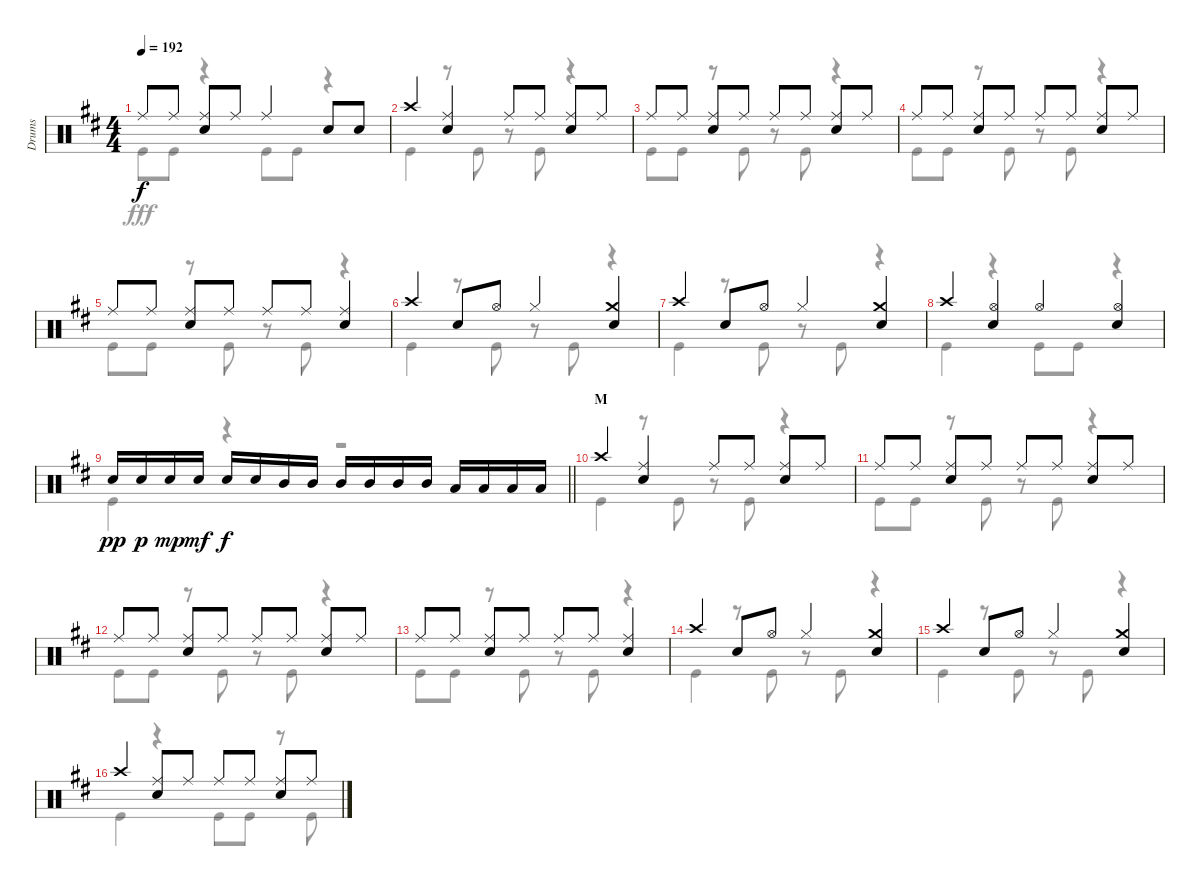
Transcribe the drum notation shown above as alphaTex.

\track ("Drums" "Drums") {instrument percussion}
\staff {score}
\articulation defaults
\voice
\ts (4 4)
\tempo 192
\clef neutral
\ks d "Ride (middle)".8{dy f} "Ride (middle)".8
("Ride (middle)" "Snare (hit) 2").8 "Ride (middle)".8 "Ride (middle)".4 "Snare (hit) 2".8 "Snare (hit) 2".8 |
"Crash high (hit)".4 ("Ride (middle)" "Snare (hit) 2").4 "Ride (middle)".8 "Ride (middle)".8 ("Ride (middle)" "Snare (hit) 2").8 "Ride (middle)".8 |
"Ride (middle)".8 "Ride (middle)".8 ("Ride (middle)" "Snare (hit) 2").8 "Ride (middle)".8 "Ride (middle)".8 "Ride (middle)".8 ("Ride (middle)" "Snare (hit) 2").8 "Ride (middle)".8 |
"Ride (middle)".8 "Ride (middle)".8 ("Ride (middle)" "Snare (hit) 2").8 "Ride (middle)".8 "Ride (middle)".8 "Ride (middle)".8 ("Ride (middle)" "Snare (hit) 2").8 "Ride (middle)".8 |
"Ride (middle)".8 "Ride (middle)".8 ("Ride (middle)" "Snare (hit) 2").8 "Ride (middle)".8 "Ride (middle)".8 "Ride (middle)".8 ("Ride (middle)" "Snare (hit) 2").4 |
"Crash high (hit)".4 "Snare (hit) 2".8 "Hi-Hat (open)".8 "Hi-Hat (closed)".4 ("Crash medium (hit)" "Snare (hit) 2").4 |
"Crash high (hit)".4 "Snare (hit) 2".8 "Hi-Hat (open)".8 "Hi-Hat (closed)".4 ("Crash medium (hit)" "Snare (hit) 2").4 |
"Crash high (hit)".4 ("Hi-Hat (open)" "Snare (hit) 2").4 "Hi-Hat (open)".4 ("Hi-Hat (open)" "Snare (hit) 2").4 |
\barLineRight lightlight "Snare (hit) 2".16{dy pp} "Snare (hit) 2".16{dy p} "Snare (hit) 2".16{dy mp} "Snare (hit) 2".16{dy mf} "Snare (hit) 2".16{dy f} "Snare (hit) 2".16 "Mid Tom (hit)".16 "Mid Tom (hit)".16 "Mid Tom (hit)".16 "Mid Tom (hit)".16 "Mid Tom (hit)".16 "Mid Tom (hit)".16 "Low Tom (hit)".16 "Low Tom (hit)".16 "Low Tom (hit)".16 "Low Tom (hit)".16
|
\section ("" "M")
"Crash high (hit)".4 ("Ride (middle)" "Snare (hit) 2").4 "Ride (middle)".8 "Ride (middle)".8 ("Ride (middle)" "Snare (hit) 2").8 "Ride (middle)".8 |
"Ride (middle)".8 "Ride (middle)".8 ("Ride (middle)" "Snare (hit) 2").8 "Ride (middle)".8 "Ride (middle)".8 "Ride (middle)".8 ("Ride (middle)" "Snare (hit) 2").8 "Ride (middle)".8 |
"Ride (middle)".8 "Ride (middle)".8 ("Ride (middle)" "Snare (hit) 2").8 "Ride (middle)".8 "Ride (middle)".8 "Ride (middle)".8 ("Ride (middle)" "Snare (hit) 2").8 "Ride (middle)".8 |
"Ride (middle)".8 "Ride (middle)".8 ("Ride (middle)" "Snare (hit) 2").8 "Ride (middle)".8 "Ride (middle)".8 "Ride (middle)".8 ("Ride (middle)" "Snare (hit) 2").4 |
"Crash high (hit)".4 "Snare (hit) 2".8 "Hi-Hat (open)".8 "Hi-Hat (closed)".4 ("Crash medium (hit)" "Snare (hit) 2").4 |
"Crash high (hit)".4 "Snare (hit) 2".8 "Hi-Hat (open)".8 "Hi-Hat (closed)".4 ("Crash medium (hit)" "Snare (hit) 2").4 |
"Crash high (hit)".4 ("Ride (middle)" "Snare (hit) 2").8 "Ride (middle)".8 "Ride (middle)".8 "Ride (middle)".8 ("Ride (middle)" "Snare (hit) 2").8 "Ride (middle)".8
\voice
\clef neutral
\ottava regular
\simile none
\ks d "Kick (hit)".8{dy fff} "Kick (hit)".8
r.4 "Kick (hit)".8 "Kick (hit)".8 r.4 |
"Kick (hit)".4 r.8 "Kick (hit)".8 r.8 "Kick (hit)".8 r.4 |
"Kick (hit)".8 "Kick (hit)".8 r.8 "Kick (hit)".8 r.8 "Kick (hit)".8 r.4 |
"Kick (hit)".8 "Kick (hit)".8 r.8 "Kick (hit)".8 r.8 "Kick (hit)".8 r.4 |
"Kick (hit)".8 "Kick (hit)".8 r.8 "Kick (hit)".8 r.8 "Kick (hit)".8 r.4 |
"Kick (hit)".4 r.8 "Kick (hit)".8 r.8 "Kick (hit)".8 r.4 |
"Kick (hit)".4 r.8 "Kick (hit)".8 r.8 "Kick (hit)".8 r.4 |
"Kick (hit)".4 r.4 "Kick (hit)".8 "Kick (hit)".8 r.4 |
\barLineRight lightlight "Kick (hit)".4
r.4 r.2 |
"Kick (hit)".4 r.8 "Kick (hit)".8 r.8 "Kick (hit)".8 r.4 |
"Kick (hit)".8 "Kick (hit)".8 r.8 "Kick (hit)".8 r.8 "Kick (hit)".8 r.4 |
"Kick (hit)".8 "Kick (hit)".8 r.8 "Kick (hit)".8 r.8 "Kick (hit)".8 r.4 |
"Kick (hit)".8 "Kick (hit)".8 r.8 "Kick (hit)".8 r.8 "Kick (hit)".8 r.4 |
"Kick (hit)".4 r.8 "Kick (hit)".8 r.8 "Kick (hit)".8 r.4 |
"Kick (hit)".4 r.8 "Kick (hit)".8 r.8 "Kick (hit)".8 r.4 |
"Kick (hit)".4 r.4 "Kick (hit)".8 "Kick (hit)".8 r.8 "Kick (hit)".8
